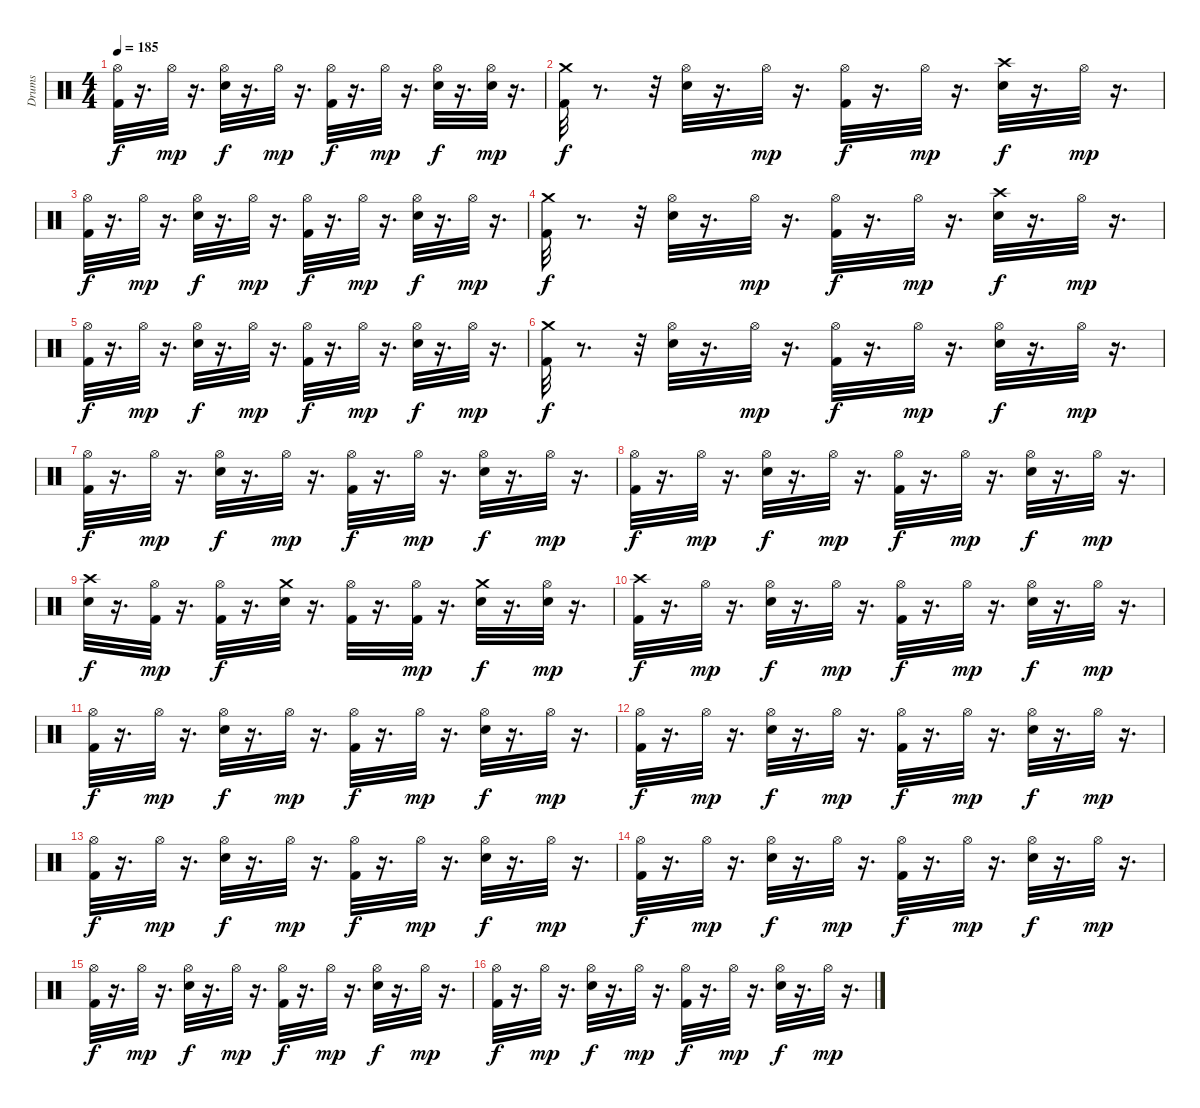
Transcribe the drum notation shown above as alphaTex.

\track ("Drums" "Drums") {instrument percussion}
\staff {score}
\articulation defaults
\ts (4 4)
\tempo 185
\clef neutral
\ks c
("Hi-Hat (open)" "Kick (hit) 2").32{dy f} r.16{d} "Hi-Hat (open)".32{dy mp} r.16{d} ("Hi-Hat (open)" "Electric Snare (hit)").32{dy f} r.16{d} "Hi-Hat (open)".32{dy mp} r.16{d} ("Hi-Hat (open)" "Kick (hit) 2").32{dy f} r.16{d} "Hi-Hat (open)".32{dy mp} r.16{d} ("Hi-Hat (open)" "Electric Snare (hit)").32{dy f} r.16{d} ("Electric Snare (hit)" "Hi-Hat (open)").32{dy mp} r.16{d} |
("Crash medium (hit)" "Kick (hit) 2").32{dy f} r.8{d} r.32 ("Hi-Hat (open)" "Electric Snare (hit)").32 r.16{d} "Hi-Hat (open)".32{dy mp} r.16{d} ("Hi-Hat (open)" "Kick (hit) 2").32{dy f} r.16{d} "Hi-Hat (open)".32{dy mp} r.16{d} ("Crash high (hit)" "Electric Snare (hit)").32{dy f} r.16{d} "Hi-Hat (open)".32{dy mp} r.16{d} |
("Hi-Hat (open)" "Kick (hit) 2").32{dy f} r.16{d} "Hi-Hat (open)".32{dy mp} r.16{d} ("Hi-Hat (open)" "Electric Snare (hit)").32{dy f} r.16{d} "Hi-Hat (open)".32{dy mp} r.16{d} ("Hi-Hat (open)" "Kick (hit) 2").32{dy f} r.16{d} "Hi-Hat (open)".32{dy mp} r.16{d} ("Hi-Hat (open)" "Electric Snare (hit)").32{dy f} r.16{d} "Hi-Hat (open)".32{dy mp} r.16{d} |
("Crash medium (hit)" "Kick (hit) 2").32{dy f} r.8{d} r.32 ("Hi-Hat (open)" "Electric Snare (hit)").32 r.16{d} "Hi-Hat (open)".32{dy mp} r.16{d} ("Hi-Hat (open)" "Kick (hit) 2").32{dy f} r.16{d} "Hi-Hat (open)".32{dy mp} r.16{d} ("Crash high (hit)" "Electric Snare (hit)").32{dy f} r.16{d} "Hi-Hat (open)".32{dy mp} r.16{d} |
("Hi-Hat (open)" "Kick (hit) 2").32{dy f} r.16{d} "Hi-Hat (open)".32{dy mp} r.16{d} ("Hi-Hat (open)" "Electric Snare (hit)").32{dy f} r.16{d} "Hi-Hat (open)".32{dy mp} r.16{d} ("Hi-Hat (open)" "Kick (hit) 2").32{dy f} r.16{d} "Hi-Hat (open)".32{dy mp} r.16{d} ("Hi-Hat (open)" "Electric Snare (hit)").32{dy f} r.16{d} "Hi-Hat (open)".32{dy mp} r.16{d} |
("Crash medium (hit)" "Kick (hit) 2").32{dy f} r.8{d} r.32 ("Hi-Hat (open)" "Electric Snare (hit)").32 r.16{d} "Hi-Hat (open)".32{dy mp} r.16{d} ("Hi-Hat (open)" "Kick (hit) 2").32{dy f} r.16{d} "Hi-Hat (open)".32{dy mp} r.16{d} ("Hi-Hat (open)" "Electric Snare (hit)").32{dy f} r.16{d} "Hi-Hat (open)".32{dy mp} r.16{d} |
("Hi-Hat (open)" "Kick (hit) 2").32{dy f} r.16{d} "Hi-Hat (open)".32{dy mp} r.16{d} ("Hi-Hat (open)" "Electric Snare (hit)").32{dy f} r.16{d} "Hi-Hat (open)".32{dy mp} r.16{d} ("Hi-Hat (open)" "Kick (hit) 2").32{dy f} r.16{d} "Hi-Hat (open)".32{dy mp} r.16{d} ("Hi-Hat (open)" "Electric Snare (hit)").32{dy f} r.16{d} "Hi-Hat (open)".32{dy mp} r.16{d} |
("Hi-Hat (open)" "Kick (hit) 2").32{dy f} r.16{d} "Hi-Hat (open)".32{dy mp} r.16{d} ("Hi-Hat (open)" "Electric Snare (hit)").32{dy f} r.16{d} "Hi-Hat (open)".32{dy mp} r.16{d} ("Hi-Hat (open)" "Kick (hit) 2").32{dy f} r.16{d} "Hi-Hat (open)".32{dy mp} r.16{d} ("Hi-Hat (open)" "Electric Snare (hit)").32{dy f} r.16{d} "Hi-Hat (open)".32{dy mp} r.16{d} |
("Electric Snare (hit)" "Crash high (hit)").32{dy f} r.16{d} ("Kick (hit) 2" "Hi-Hat (open)").32{dy mp} r.16{d} ("Kick (hit) 2" "Hi-Hat (open)").32{dy f} r.16{d} ("Crash medium (hit)" "Electric Snare (hit)").32 r.16{d} ("Hi-Hat (open)" "Kick (hit) 2").32 r.16{d} ("Kick (hit) 2" "Hi-Hat (open)").32{dy mp} r.16{d} ("Crash medium (hit)" "Electric Snare (hit)").32{dy f} r.16{d} ("Electric Snare (hit)" "Hi-Hat (open)").32{dy mp} r.16{d} |
("Crash high (hit)" "Kick (hit) 2").32{dy f} r.16{d} "Hi-Hat (open)".32{dy mp} r.16{d} ("Hi-Hat (open)" "Electric Snare (hit)").32{dy f} r.16{d} "Hi-Hat (open)".32{dy mp} r.16{d} ("Hi-Hat (open)" "Kick (hit) 2").32{dy f} r.16{d} "Hi-Hat (open)".32{dy mp} r.16{d} ("Hi-Hat (open)" "Electric Snare (hit)").32{dy f} r.16{d} "Hi-Hat (open)".32{dy mp} r.16{d} |
("Hi-Hat (open)" "Kick (hit) 2").32{dy f} r.16{d} "Hi-Hat (open)".32{dy mp} r.16{d} ("Hi-Hat (open)" "Electric Snare (hit)").32{dy f} r.16{d} "Hi-Hat (open)".32{dy mp} r.16{d} ("Hi-Hat (open)" "Kick (hit) 2").32{dy f} r.16{d} "Hi-Hat (open)".32{dy mp} r.16{d} ("Hi-Hat (open)" "Electric Snare (hit)").32{dy f} r.16{d} "Hi-Hat (open)".32{dy mp} r.16{d} |
("Hi-Hat (open)" "Kick (hit) 2").32{dy f} r.16{d} "Hi-Hat (open)".32{dy mp} r.16{d} ("Hi-Hat (open)" "Electric Snare (hit)").32{dy f} r.16{d} "Hi-Hat (open)".32{dy mp} r.16{d} ("Hi-Hat (open)" "Kick (hit) 2").32{dy f} r.16{d} "Hi-Hat (open)".32{dy mp} r.16{d} ("Hi-Hat (open)" "Electric Snare (hit)").32{dy f} r.16{d} "Hi-Hat (open)".32{dy mp} r.16{d} |
("Hi-Hat (open)" "Kick (hit) 2").32{dy f} r.16{d} "Hi-Hat (open)".32{dy mp} r.16{d} ("Hi-Hat (open)" "Electric Snare (hit)").32{dy f} r.16{d} "Hi-Hat (open)".32{dy mp} r.16{d} ("Hi-Hat (open)" "Kick (hit) 2").32{dy f} r.16{d} "Hi-Hat (open)".32{dy mp} r.16{d} ("Hi-Hat (open)" "Electric Snare (hit)").32{dy f} r.16{d} "Hi-Hat (open)".32{dy mp} r.16{d} |
("Hi-Hat (open)" "Kick (hit) 2").32{dy f} r.16{d} "Hi-Hat (open)".32{dy mp} r.16{d} ("Hi-Hat (open)" "Electric Snare (hit)").32{dy f} r.16{d} "Hi-Hat (open)".32{dy mp} r.16{d} ("Hi-Hat (open)" "Kick (hit) 2").32{dy f} r.16{d} "Hi-Hat (open)".32{dy mp} r.16{d} ("Hi-Hat (open)" "Electric Snare (hit)").32{dy f} r.16{d} "Hi-Hat (open)".32{dy mp} r.16{d} |
("Hi-Hat (open)" "Kick (hit) 2").32{dy f} r.16{d} "Hi-Hat (open)".32{dy mp} r.16{d} ("Hi-Hat (open)" "Electric Snare (hit)").32{dy f} r.16{d} "Hi-Hat (open)".32{dy mp} r.16{d} ("Hi-Hat (open)" "Kick (hit) 2").32{dy f} r.16{d} "Hi-Hat (open)".32{dy mp} r.16{d} ("Hi-Hat (open)" "Electric Snare (hit)").32{dy f} r.16{d} "Hi-Hat (open)".32{dy mp} r.16{d} |
("Hi-Hat (open)" "Kick (hit) 2").32{dy f} r.16{d} "Hi-Hat (open)".32{dy mp} r.16{d} ("Hi-Hat (open)" "Electric Snare (hit)").32{dy f} r.16{d} "Hi-Hat (open)".32{dy mp} r.16{d} ("Hi-Hat (open)" "Kick (hit) 2").32{dy f} r.16{d} "Hi-Hat (open)".32{dy mp} r.16{d} ("Hi-Hat (open)" "Electric Snare (hit)").32{dy f} r.16{d} "Hi-Hat (open)".32{dy mp} r.16{d}
